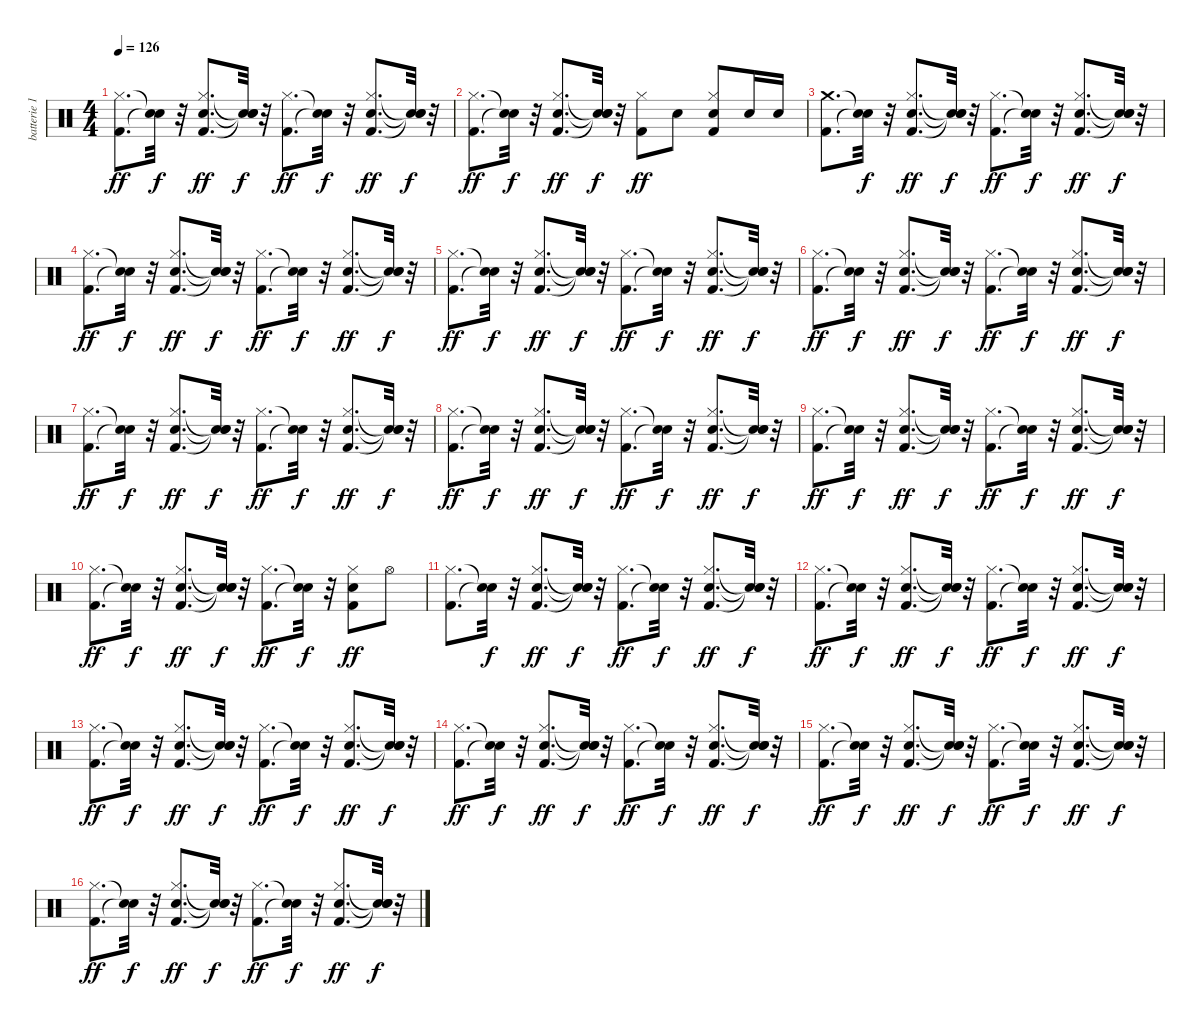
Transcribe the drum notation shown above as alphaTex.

\track ("batterie 1" "batterie 1") {instrument percussion}
\staff {score}
\articulation defaults
\ts (4 4)
\tempo 126
\clef neutral
\ks c
("Kick (hit) 2" "Hi-Hat (closed)").8{d dy ff} ("Snare (hit)"{t} "Snare (hit)"{t}).32{dy f} r.32 ("Kick (hit) 2" "Snare (hit) 2" "Hi-Hat (closed)").8{d dy ff} ("Snare (hit)"{t} "Snare (hit)"{t} "Snare (hit)"{t}).32{dy f} r.32 ("Kick (hit) 2" "Hi-Hat (closed)").8{d dy ff} ("Snare (hit)"{t} "Snare (hit)"{t}).32{dy f} r.32 ("Kick (hit) 2" "Snare (hit) 2" "Hi-Hat (closed)").8{d dy ff} ("Snare (hit)"{t} "Snare (hit)"{t} "Snare (hit)"{t}).32{dy f} r.32 |
("Kick (hit) 2" "Hi-Hat (closed)").8{d dy ff} ("Snare (hit)"{t} "Snare (hit)"{t}).32{dy f} r.32 ("Kick (hit) 2" "Snare (hit) 2" "Hi-Hat (closed)").8{d dy ff} ("Snare (hit)"{t} "Snare (hit)"{t} "Snare (hit)"{t}).32{dy f} r.32 ("Kick (hit) 2" "Hi-Hat (closed)").8{dy ff} "Snare (hit) 2".8 ("Kick (hit) 2" "Snare (hit) 2" "Hi-Hat (closed)").8 "Snare (hit) 2".16 "Snare (hit) 2".16 |
("Kick (hit) 2" "Crash medium (hit)").8{d} ("Snare (hit)"{t} "Snare (hit)"{t}).32{dy f} r.32 ("Kick (hit) 2" "Snare (hit) 2" "Hi-Hat (closed)").8{d dy ff} ("Snare (hit)"{t} "Snare (hit)"{t} "Snare (hit)"{t}).32{dy f} r.32 ("Kick (hit) 2" "Hi-Hat (closed)").8{d dy ff} ("Snare (hit)"{t} "Snare (hit)"{t}).32{dy f} r.32 ("Kick (hit) 2" "Snare (hit) 2" "Hi-Hat (closed)").8{d dy ff} ("Snare (hit)"{t} "Snare (hit)"{t} "Snare (hit)"{t}).32{dy f} r.32 |
("Kick (hit) 2" "Hi-Hat (closed)").8{d dy ff} ("Snare (hit)"{t} "Snare (hit)"{t}).32{dy f} r.32 ("Kick (hit) 2" "Snare (hit) 2" "Hi-Hat (closed)").8{d dy ff} ("Snare (hit)"{t} "Snare (hit)"{t} "Snare (hit)"{t}).32{dy f} r.32 ("Kick (hit) 2" "Hi-Hat (closed)").8{d dy ff} ("Snare (hit)"{t} "Snare (hit)"{t}).32{dy f} r.32 ("Kick (hit) 2" "Snare (hit) 2" "Hi-Hat (closed)").8{d dy ff} ("Snare (hit)"{t} "Snare (hit)"{t} "Snare (hit)"{t}).32{dy f} r.32 |
("Kick (hit) 2" "Hi-Hat (closed)").8{d dy ff} ("Snare (hit)"{t} "Snare (hit)"{t}).32{dy f} r.32 ("Kick (hit) 2" "Snare (hit) 2" "Hi-Hat (closed)").8{d dy ff} ("Snare (hit)"{t} "Snare (hit)"{t} "Snare (hit)"{t}).32{dy f} r.32 ("Kick (hit) 2" "Hi-Hat (closed)").8{d dy ff} ("Snare (hit)"{t} "Snare (hit)"{t}).32{dy f} r.32 ("Kick (hit) 2" "Snare (hit) 2" "Hi-Hat (closed)").8{d dy ff} ("Snare (hit)"{t} "Snare (hit)"{t} "Snare (hit)"{t}).32{dy f} r.32 |
("Kick (hit) 2" "Hi-Hat (closed)").8{d dy ff} ("Snare (hit)"{t} "Snare (hit)"{t}).32{dy f} r.32 ("Kick (hit) 2" "Snare (hit) 2" "Hi-Hat (closed)").8{d dy ff} ("Snare (hit)"{t} "Snare (hit)"{t} "Snare (hit)"{t}).32{dy f} r.32 ("Kick (hit) 2" "Hi-Hat (closed)").8{d dy ff} ("Snare (hit)"{t} "Snare (hit)"{t}).32{dy f} r.32 ("Kick (hit) 2" "Snare (hit) 2" "Hi-Hat (closed)").8{d dy ff} ("Snare (hit)"{t} "Snare (hit)"{t} "Snare (hit)"{t}).32{dy f} r.32 |
("Kick (hit) 2" "Hi-Hat (closed)").8{d dy ff} ("Snare (hit)"{t} "Snare (hit)"{t}).32{dy f} r.32 ("Kick (hit) 2" "Snare (hit) 2" "Hi-Hat (closed)").8{d dy ff} ("Snare (hit)"{t} "Snare (hit)"{t} "Snare (hit)"{t}).32{dy f} r.32 ("Kick (hit) 2" "Hi-Hat (closed)").8{d dy ff} ("Snare (hit)"{t} "Snare (hit)"{t}).32{dy f} r.32 ("Kick (hit) 2" "Snare (hit) 2" "Hi-Hat (closed)").8{d dy ff} ("Snare (hit)"{t} "Snare (hit)"{t} "Snare (hit)"{t}).32{dy f} r.32 |
("Kick (hit) 2" "Hi-Hat (closed)").8{d dy ff} ("Snare (hit)"{t} "Snare (hit)"{t}).32{dy f} r.32 ("Kick (hit) 2" "Snare (hit) 2" "Hi-Hat (closed)").8{d dy ff} ("Snare (hit)"{t} "Snare (hit)"{t} "Snare (hit)"{t}).32{dy f} r.32 ("Kick (hit) 2" "Hi-Hat (closed)").8{d dy ff} ("Snare (hit)"{t} "Snare (hit)"{t}).32{dy f} r.32 ("Kick (hit) 2" "Snare (hit) 2" "Hi-Hat (closed)").8{d dy ff} ("Snare (hit)"{t} "Snare (hit)"{t} "Snare (hit)"{t}).32{dy f} r.32 |
("Kick (hit) 2" "Hi-Hat (closed)").8{d dy ff} ("Snare (hit)"{t} "Snare (hit)"{t}).32{dy f} r.32 ("Kick (hit) 2" "Snare (hit) 2" "Hi-Hat (closed)").8{d dy ff} ("Snare (hit)"{t} "Snare (hit)"{t} "Snare (hit)"{t}).32{dy f} r.32 ("Kick (hit) 2" "Hi-Hat (closed)").8{d dy ff} ("Snare (hit)"{t} "Snare (hit)"{t}).32{dy f} r.32 ("Kick (hit) 2" "Snare (hit) 2" "Hi-Hat (closed)").8{d dy ff} ("Snare (hit)"{t} "Snare (hit)"{t} "Snare (hit)"{t}).32{dy f} r.32 |
("Kick (hit) 2" "Hi-Hat (closed)").8{d dy ff} ("Snare (hit)"{t} "Snare (hit)"{t}).32{dy f} r.32 ("Kick (hit) 2" "Snare (hit) 2" "Hi-Hat (closed)").8{d dy ff} ("Snare (hit)"{t} "Snare (hit)"{t} "Snare (hit)"{t}).32{dy f} r.32 ("Kick (hit) 2" "Hi-Hat (closed)").8{d dy ff} ("Snare (hit)"{t} "Snare (hit)"{t}).32{dy f} r.32 ("Kick (hit) 2" "Snare (hit) 2" "Hi-Hat (closed)").8{dy ff} "Hi-Hat (open)".8 |
("Kick (hit) 2" "Hi-Hat (closed)").8{d} ("Snare (hit)"{t} "Snare (hit)"{t}).32{dy f} r.32 ("Kick (hit) 2" "Snare (hit) 2" "Hi-Hat (closed)").8{d dy ff} ("Snare (hit)"{t} "Snare (hit)"{t} "Snare (hit)"{t}).32{dy f} r.32 ("Kick (hit) 2" "Hi-Hat (closed)").8{d dy ff} ("Snare (hit)"{t} "Snare (hit)"{t}).32{dy f} r.32 ("Kick (hit) 2" "Snare (hit) 2" "Hi-Hat (closed)").8{d dy ff} ("Snare (hit)"{t} "Snare (hit)"{t} "Snare (hit)"{t}).32{dy f} r.32 |
("Kick (hit) 2" "Hi-Hat (closed)").8{d dy ff} ("Snare (hit)"{t} "Snare (hit)"{t}).32{dy f} r.32 ("Kick (hit) 2" "Snare (hit) 2" "Hi-Hat (closed)").8{d dy ff} ("Snare (hit)"{t} "Snare (hit)"{t} "Snare (hit)"{t}).32{dy f} r.32 ("Kick (hit) 2" "Hi-Hat (closed)").8{d dy ff} ("Snare (hit)"{t} "Snare (hit)"{t}).32{dy f} r.32 ("Kick (hit) 2" "Snare (hit) 2" "Hi-Hat (closed)").8{d dy ff} ("Snare (hit)"{t} "Snare (hit)"{t} "Snare (hit)"{t}).32{dy f} r.32 |
("Kick (hit) 2" "Hi-Hat (closed)").8{d dy ff} ("Snare (hit)"{t} "Snare (hit)"{t}).32{dy f} r.32 ("Kick (hit) 2" "Snare (hit) 2" "Hi-Hat (closed)").8{d dy ff} ("Snare (hit)"{t} "Snare (hit)"{t} "Snare (hit)"{t}).32{dy f} r.32 ("Kick (hit) 2" "Hi-Hat (closed)").8{d dy ff} ("Snare (hit)"{t} "Snare (hit)"{t}).32{dy f} r.32 ("Kick (hit) 2" "Snare (hit) 2" "Hi-Hat (closed)").8{d dy ff} ("Snare (hit)"{t} "Snare (hit)"{t} "Snare (hit)"{t}).32{dy f} r.32 |
("Kick (hit) 2" "Hi-Hat (closed)").8{d dy ff} ("Snare (hit)"{t} "Snare (hit)"{t}).32{dy f} r.32 ("Kick (hit) 2" "Snare (hit) 2" "Hi-Hat (closed)").8{d dy ff} ("Snare (hit)"{t} "Snare (hit)"{t} "Snare (hit)"{t}).32{dy f} r.32 ("Kick (hit) 2" "Hi-Hat (closed)").8{d dy ff} ("Snare (hit)"{t} "Snare (hit)"{t}).32{dy f} r.32 ("Kick (hit) 2" "Snare (hit) 2" "Hi-Hat (closed)").8{d dy ff} ("Snare (hit)"{t} "Snare (hit)"{t} "Snare (hit)"{t}).32{dy f} r.32 |
("Kick (hit) 2" "Hi-Hat (closed)").8{d dy ff} ("Snare (hit)"{t} "Snare (hit)"{t}).32{dy f} r.32 ("Kick (hit) 2" "Snare (hit) 2" "Hi-Hat (closed)").8{d dy ff} ("Snare (hit)"{t} "Snare (hit)"{t} "Snare (hit)"{t}).32{dy f} r.32 ("Kick (hit) 2" "Hi-Hat (closed)").8{d dy ff} ("Snare (hit)"{t} "Snare (hit)"{t}).32{dy f} r.32 ("Kick (hit) 2" "Snare (hit) 2" "Hi-Hat (closed)").8{d dy ff} ("Snare (hit)"{t} "Snare (hit)"{t} "Snare (hit)"{t}).32{dy f} r.32 |
("Kick (hit) 2" "Hi-Hat (closed)").8{d dy ff} ("Snare (hit)"{t} "Snare (hit)"{t}).32{dy f} r.32 ("Kick (hit) 2" "Snare (hit) 2" "Hi-Hat (closed)").8{d dy ff} ("Snare (hit)"{t} "Snare (hit)"{t} "Snare (hit)"{t}).32{dy f} r.32 ("Kick (hit) 2" "Hi-Hat (closed)").8{d dy ff} ("Snare (hit)"{t} "Snare (hit)"{t}).32{dy f} r.32 ("Kick (hit) 2" "Snare (hit) 2" "Hi-Hat (closed)").8{d dy ff} ("Snare (hit)"{t} "Snare (hit)"{t} "Snare (hit)"{t}).32{dy f} r.32
